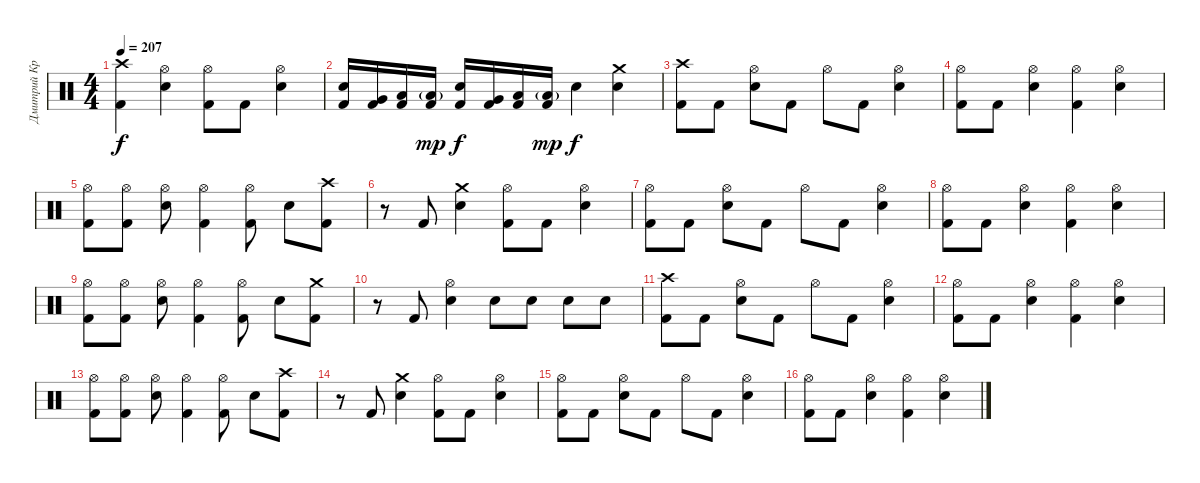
\track ("Дмитрий Кривенков" "Дмитрий Кр") {instrument percussion}
\staff {score}
\articulation defaults
\ts (4 4)
\tempo 207
\clef neutral
\ks c
("Crash high (hit)" "Kick (hit) 2").4{dy f} ("Hi-Hat (open)" "Electric Snare (hit)").4 ("Hi-Hat (open)" "Kick (hit) 2").8 "Kick (hit) 2".8 ("Hi-Hat (open)" "Electric Snare (hit)").4 |
("Electric Snare (hit)" "Kick (hit) 2").16 ("Very Low Tom (hit)" "Kick (hit) 2").16 ("Low Floor Tom (hit)" "Kick (hit) 2").16 ("Low Floor Tom (hit)"{g} "Kick (hit) 2").16{dy mp} ("Electric Snare (hit)" "Kick (hit) 2").16{dy f} ("Very Low Tom (hit)" "Kick (hit) 2").16 ("Low Floor Tom (hit)" "Kick (hit) 2").16 ("Low Floor Tom (hit)"{g} "Kick (hit) 2").16{dy mp} "Electric Snare (hit)".4{dy f} ("Crash medium (hit)" "Electric Snare (hit)").4 |
("Crash high (hit)" "Kick (hit) 2").8 "Kick (hit) 2".8 ("Hi-Hat (open)" "Electric Snare (hit)").8 "Kick (hit) 2".8 "Hi-Hat (open)".8 "Kick (hit) 2".8 ("Hi-Hat (open)" "Electric Snare (hit)").4 |
("Hi-Hat (open)" "Kick (hit) 2").8 "Kick (hit) 2".8 ("Hi-Hat (open)" "Electric Snare (hit)").4 ("Hi-Hat (open)" "Kick (hit) 2").4 ("Hi-Hat (open)" "Electric Snare (hit)").4 |
("Hi-Hat (open)" "Kick (hit) 2").8 ("Hi-Hat (open)" "Kick (hit) 2").8 ("Hi-Hat (open)" "Electric Snare (hit)").8 ("Hi-Hat (open)" "Kick (hit) 2").4 ("Hi-Hat (open)" "Kick (hit) 2").8 "Electric Snare (hit)".8 ("Crash high (hit)" "Kick (hit) 2").8 |
r.8 "Kick (hit) 2".8 ("Crash medium (hit)" "Electric Snare (hit)").4 ("Hi-Hat (open)" "Kick (hit) 2").8 "Kick (hit) 2".8 ("Hi-Hat (open)" "Electric Snare (hit)").4 |
("Hi-Hat (open)" "Kick (hit) 2").8 "Kick (hit) 2".8 ("Hi-Hat (open)" "Electric Snare (hit)").8 "Kick (hit) 2".8 "Hi-Hat (open)".8 "Kick (hit) 2".8 ("Hi-Hat (open)" "Electric Snare (hit)").4 |
("Hi-Hat (open)" "Kick (hit) 2").8 "Kick (hit) 2".8 ("Hi-Hat (open)" "Electric Snare (hit)").4 ("Hi-Hat (open)" "Kick (hit) 2").4 ("Hi-Hat (open)" "Electric Snare (hit)").4 |
("Hi-Hat (open)" "Kick (hit) 2").8 ("Hi-Hat (open)" "Kick (hit) 2").8 ("Hi-Hat (open)" "Electric Snare (hit)").8 ("Hi-Hat (open)" "Kick (hit) 2").4 ("Hi-Hat (open)" "Kick (hit) 2").8 "Electric Snare (hit)".8 ("Crash medium (hit)" "Kick (hit) 2").8 |
r.8 "Kick (hit) 2".8 ("Hi-Hat (open)" "Electric Snare (hit)").4 "Electric Snare (hit)".8 "Electric Snare (hit)".8 "Electric Snare (hit)".8 "Electric Snare (hit)".8 |
("Crash high (hit)" "Kick (hit) 2").8 "Kick (hit) 2".8 ("Hi-Hat (open)" "Electric Snare (hit)").8 "Kick (hit) 2".8 "Hi-Hat (open)".8 "Kick (hit) 2".8 ("Hi-Hat (open)" "Electric Snare (hit)").4 |
("Hi-Hat (open)" "Kick (hit) 2").8 "Kick (hit) 2".8 ("Hi-Hat (open)" "Electric Snare (hit)").4 ("Hi-Hat (open)" "Kick (hit) 2").4 ("Hi-Hat (open)" "Electric Snare (hit)").4 |
("Hi-Hat (open)" "Kick (hit) 2").8 ("Hi-Hat (open)" "Kick (hit) 2").8 ("Hi-Hat (open)" "Electric Snare (hit)").8 ("Hi-Hat (open)" "Kick (hit) 2").4 ("Hi-Hat (open)" "Kick (hit) 2").8 "Electric Snare (hit)".8 ("Crash high (hit)" "Kick (hit) 2").8 |
r.8 "Kick (hit) 2".8 ("Crash medium (hit)" "Electric Snare (hit)").4 ("Hi-Hat (open)" "Kick (hit) 2").8 "Kick (hit) 2".8 ("Hi-Hat (open)" "Electric Snare (hit)").4 |
("Hi-Hat (open)" "Kick (hit) 2").8 "Kick (hit) 2".8 ("Hi-Hat (open)" "Electric Snare (hit)").8 "Kick (hit) 2".8 "Hi-Hat (open)".8 "Kick (hit) 2".8 ("Hi-Hat (open)" "Electric Snare (hit)").4 |
("Hi-Hat (open)" "Kick (hit) 2").8 "Kick (hit) 2".8 ("Hi-Hat (open)" "Electric Snare (hit)").4 ("Hi-Hat (open)" "Kick (hit) 2").4 ("Hi-Hat (open)" "Electric Snare (hit)").4
